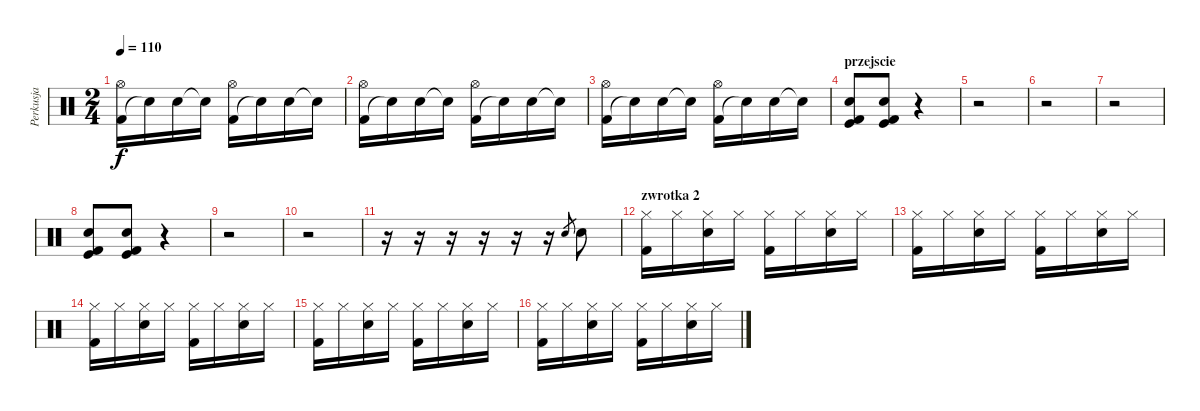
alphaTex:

\track ("Perkusja" "Perkusja") {instrument percussion}
\staff {score}
\articulation defaults
\ts (2 4)
\tempo 110
\clef neutral
\ks c
("Kick (hit) 2" "Hi-Hat (open)").16{dy f} "Snare (hit)"{t}.16 "Electric Snare (hit)".16 "Snare (hit)"{t}.16 ("Kick (hit) 2" "Hi-Hat (open)").16 "Snare (hit)"{t}.16 "Electric Snare (hit)".16 "Snare (hit)"{t}.16 |
("Kick (hit) 2" "Hi-Hat (open)").16 "Snare (hit)"{t}.16 "Electric Snare (hit)".16 "Snare (hit)"{t}.16 ("Kick (hit) 2" "Hi-Hat (open)").16 "Snare (hit)"{t}.16 "Electric Snare (hit)".16 "Snare (hit)"{t}.16 |
("Kick (hit) 2" "Hi-Hat (open)").16 "Snare (hit)"{t}.16 "Electric Snare (hit)".16 "Snare (hit)"{t}.16 ("Kick (hit) 2" "Hi-Hat (open)").16 "Snare (hit)"{t}.16 "Electric Snare (hit)".16 "Snare (hit)"{t}.16 |
\section ("" "przejscie")
("Kick (hit)" "Kick (hit) 2" "Snare (hit) 2").8 ("Kick (hit)" "Kick (hit) 2" "Snare (hit) 2").8 r.4 |
r.2 |
r.2 |
r.2 |
("Kick (hit)" "Kick (hit) 2" "Snare (hit) 2").8 ("Kick (hit)" "Kick (hit) 2" "Snare (hit) 2").8 r.4 |
r.2 |
r.2 |
r.16 r.16 r.16 r.16 r.16 r.16 "Snare (hit) 2".8{gr} "Electric Snare (hit)".8 |
\section ("" "zwrotka 2")
("Kick (hit) 2" "Hi-Hat (closed)").16 "Hi-Hat (closed)".16 ("Electric Snare (hit)" "Hi-Hat (closed)").16 "Hi-Hat (closed)".16 ("Kick (hit) 2" "Hi-Hat (closed)").16 "Hi-Hat (closed)".16 ("Electric Snare (hit)" "Hi-Hat (closed)").16 "Hi-Hat (closed)".16 |
("Kick (hit) 2" "Hi-Hat (closed)").16 "Hi-Hat (closed)".16 ("Electric Snare (hit)" "Hi-Hat (closed)").16 "Hi-Hat (closed)".16 ("Kick (hit) 2" "Hi-Hat (closed)").16 "Hi-Hat (closed)".16 ("Electric Snare (hit)" "Hi-Hat (closed)").16 "Hi-Hat (closed)".16 |
("Kick (hit) 2" "Hi-Hat (closed)").16 "Hi-Hat (closed)".16 ("Electric Snare (hit)" "Hi-Hat (closed)").16 "Hi-Hat (closed)".16 ("Kick (hit) 2" "Hi-Hat (closed)").16 "Hi-Hat (closed)".16 ("Electric Snare (hit)" "Hi-Hat (closed)").16 "Hi-Hat (closed)".16 |
("Kick (hit) 2" "Hi-Hat (closed)").16 "Hi-Hat (closed)".16 ("Electric Snare (hit)" "Hi-Hat (closed)").16 "Hi-Hat (closed)".16 ("Kick (hit) 2" "Hi-Hat (closed)").16 "Hi-Hat (closed)".16 ("Electric Snare (hit)" "Hi-Hat (closed)").16 "Hi-Hat (closed)".16 |
("Kick (hit) 2" "Hi-Hat (closed)").16 "Hi-Hat (closed)".16 ("Electric Snare (hit)" "Hi-Hat (closed)").16 "Hi-Hat (closed)".16 ("Kick (hit) 2" "Hi-Hat (closed)").16 "Hi-Hat (closed)".16 ("Electric Snare (hit)" "Hi-Hat (closed)").16 "Hi-Hat (closed)".16
